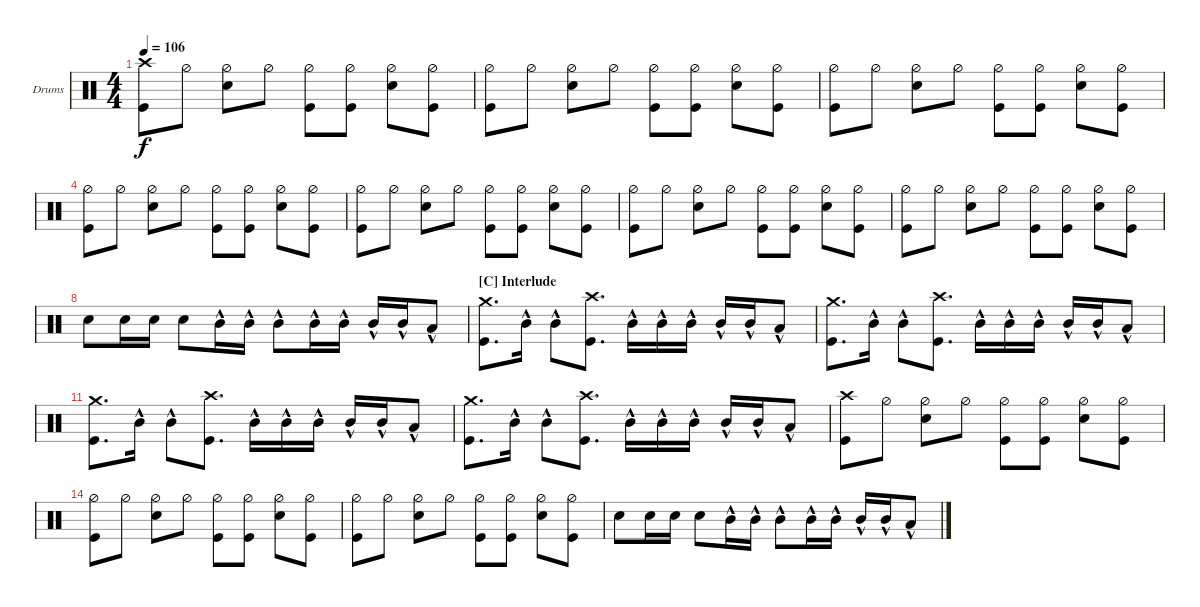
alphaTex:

\bracketExtendMode nobrackets
\firstSystemTrackNameOrientation horizontal
\otherSystemsTrackNameOrientation horizontal
\defaultBarNumberDisplay FirstOfSystem
\track ("Herman Rarebell" "Drums") {instrument percussion}
\staff {score}
\articulation defaults
\ts (4 4)
\tempo 106
\clef neutral
\scale
0.50674
\ks c
("Kick (hit)" "Crash high (hit)").8{dy f} "Hi-Hat (half)".8 ("Snare (hit) 2" "Hi-Hat (half)").8 "Hi-Hat (half)".8 ("Kick (hit)" "Hi-Hat (half)").8 ("Hi-Hat (half)" "Kick (hit)").8 ("Snare (hit) 2" "Hi-Hat (half)").8 ("Hi-Hat (half)" "Kick (hit)").8 |
("Kick (hit)" "Hi-Hat (half)").8 "Hi-Hat (half)".8 ("Snare (hit) 2" "Hi-Hat (half)").8 "Hi-Hat (half)".8 ("Kick (hit)" "Hi-Hat (half)").8 ("Hi-Hat (half)" "Kick (hit)").8 ("Snare (hit) 2" "Hi-Hat (half)").8 ("Hi-Hat (half)" "Kick (hit)").8 |
("Kick (hit)" "Hi-Hat (half)").8 "Hi-Hat (half)".8 ("Snare (hit) 2" "Hi-Hat (half)").8 "Hi-Hat (half)".8 ("Kick (hit)" "Hi-Hat (half)").8 ("Hi-Hat (half)" "Kick (hit)").8 ("Snare (hit) 2" "Hi-Hat (half)").8 ("Hi-Hat (half)" "Kick (hit)").8 |
("Kick (hit)" "Hi-Hat (half)").8 "Hi-Hat (half)".8 ("Snare (hit) 2" "Hi-Hat (half)").8 "Hi-Hat (half)".8 ("Kick (hit)" "Hi-Hat (half)").8 ("Hi-Hat (half)" "Kick (hit)").8 ("Snare (hit) 2" "Hi-Hat (half)").8 ("Hi-Hat (half)" "Kick (hit)").8 |
("Kick (hit)" "Hi-Hat (half)").8 "Hi-Hat (half)".8 ("Snare (hit) 2" "Hi-Hat (half)").8 "Hi-Hat (half)".8 ("Kick (hit)" "Hi-Hat (half)").8 ("Hi-Hat (half)" "Kick (hit)").8 ("Snare (hit) 2" "Hi-Hat (half)").8 ("Hi-Hat (half)" "Kick (hit)").8 |
("Kick (hit)" "Hi-Hat (half)").8 "Hi-Hat (half)".8 ("Snare (hit) 2" "Hi-Hat (half)").8 "Hi-Hat (half)".8 ("Kick (hit)" "Hi-Hat (half)").8 ("Hi-Hat (half)" "Kick (hit)").8 ("Snare (hit) 2" "Hi-Hat (half)").8 ("Hi-Hat (half)" "Kick (hit)").8 |
("Kick (hit)" "Hi-Hat (half)").8 "Hi-Hat (half)".8 ("Snare (hit) 2" "Hi-Hat (half)").8 "Hi-Hat (half)".8 ("Kick (hit)" "Hi-Hat (half)").8 ("Hi-Hat (half)" "Kick (hit)").8 ("Snare (hit) 2" "Hi-Hat (half)").8 ("Hi-Hat (half)" "Kick (hit)").8 |
\scale
0.491071 "Snare (hit) 2".8 "Snare (hit) 2".16 "Snare (hit) 2".16 "Snare (hit) 2".8 "Mid Tom (hit)"{hac}.16 "Mid Tom (hit)"{hac}.16 "Mid Tom (hit)"{hac}.8 "Mid Tom (hit)"{hac}.16 "Mid Tom (hit)"{hac}.16 "Mid Tom (hit)"{hac}.16 "Mid Tom (hit)"{hac}.16 "Low Tom (hit)"{hac}.8 |
\section ("C" "Interlude")
\scale
0.507985 ("Kick (hit)" "Crash medium (hit)").8{d} "Mid Tom (hit)"{hac}.16 "Mid Tom (hit)"{hac}.8 ("Kick (hit)" "Crash high (hit)").8{d} "Mid Tom (hit)"{hac}.16 "Mid Tom (hit)"{hac}.16 "Mid Tom (hit)"{hac}.16 "Mid Tom (hit)"{hac}.16 "Mid Tom (hit)"{hac}.16 "Low Tom (hit)"{hac}.8 |
\scale
0.488515 ("Kick (hit)" "Crash medium (hit)").8{d} "Mid Tom (hit)"{hac}.16 "Mid Tom (hit)"{hac}.8 ("Kick (hit)" "Crash high (hit)").8{d} "Mid Tom (hit)"{hac}.16 "Mid Tom (hit)"{hac}.16 "Mid Tom (hit)"{hac}.16 "Mid Tom (hit)"{hac}.16 "Mid Tom (hit)"{hac}.16 "Low Tom (hit)"{hac}.8 |
\scale
0.511231 ("Kick (hit)" "Crash medium (hit)").8{d} "Mid Tom (hit)"{hac}.16 "Mid Tom (hit)"{hac}.8 ("Kick (hit)" "Crash high (hit)").8{d} "Mid Tom (hit)"{hac}.16 "Mid Tom (hit)"{hac}.16 "Mid Tom (hit)"{hac}.16 "Mid Tom (hit)"{hac}.16 "Mid Tom (hit)"{hac}.16 "Low Tom (hit)"{hac}.8 |
("Kick (hit)" "Crash medium (hit)").8{d} "Mid Tom (hit)"{hac}.16 "Mid Tom (hit)"{hac}.8 ("Kick (hit)" "Crash high (hit)").8{d} "Mid Tom (hit)"{hac}.16 "Mid Tom (hit)"{hac}.16 "Mid Tom (hit)"{hac}.16 "Mid Tom (hit)"{hac}.16 "Mid Tom (hit)"{hac}.16 "Low Tom (hit)"{hac}.8 |
("Kick (hit)" "Crash high (hit)").8 "Hi-Hat (half)".8 ("Snare (hit) 2" "Hi-Hat (half)").8 "Hi-Hat (half)".8 ("Kick (hit)" "Hi-Hat (half)").8 ("Hi-Hat (half)" "Kick (hit)").8 ("Snare (hit) 2" "Hi-Hat (half)").8 ("Hi-Hat (half)" "Kick (hit)").8 |
("Kick (hit)" "Hi-Hat (half)").8 "Hi-Hat (half)".8 ("Snare (hit) 2" "Hi-Hat (half)").8 "Hi-Hat (half)".8 ("Kick (hit)" "Hi-Hat (half)").8 ("Hi-Hat (half)" "Kick (hit)").8 ("Snare (hit) 2" "Hi-Hat (half)").8 ("Hi-Hat (half)" "Kick (hit)").8 |
("Kick (hit)" "Hi-Hat (half)").8 "Hi-Hat (half)".8 ("Snare (hit) 2" "Hi-Hat (half)").8 "Hi-Hat (half)".8 ("Kick (hit)" "Hi-Hat (half)").8 ("Hi-Hat (half)" "Kick (hit)").8 ("Snare (hit) 2" "Hi-Hat (half)").8 ("Hi-Hat (half)" "Kick (hit)").8 |
\scale
0.509054 "Snare (hit) 2".8 "Snare (hit) 2".16 "Snare (hit) 2".16 "Snare (hit) 2".8 "Mid Tom (hit)"{hac}.16 "Mid Tom (hit)"{hac}.16 "Mid Tom (hit)"{hac}.8 "Mid Tom (hit)"{hac}.16 "Mid Tom (hit)"{hac}.16 "Mid Tom (hit)"{hac}.16 "Mid Tom (hit)"{hac}.16 "Low Tom (hit)"{hac}.8
